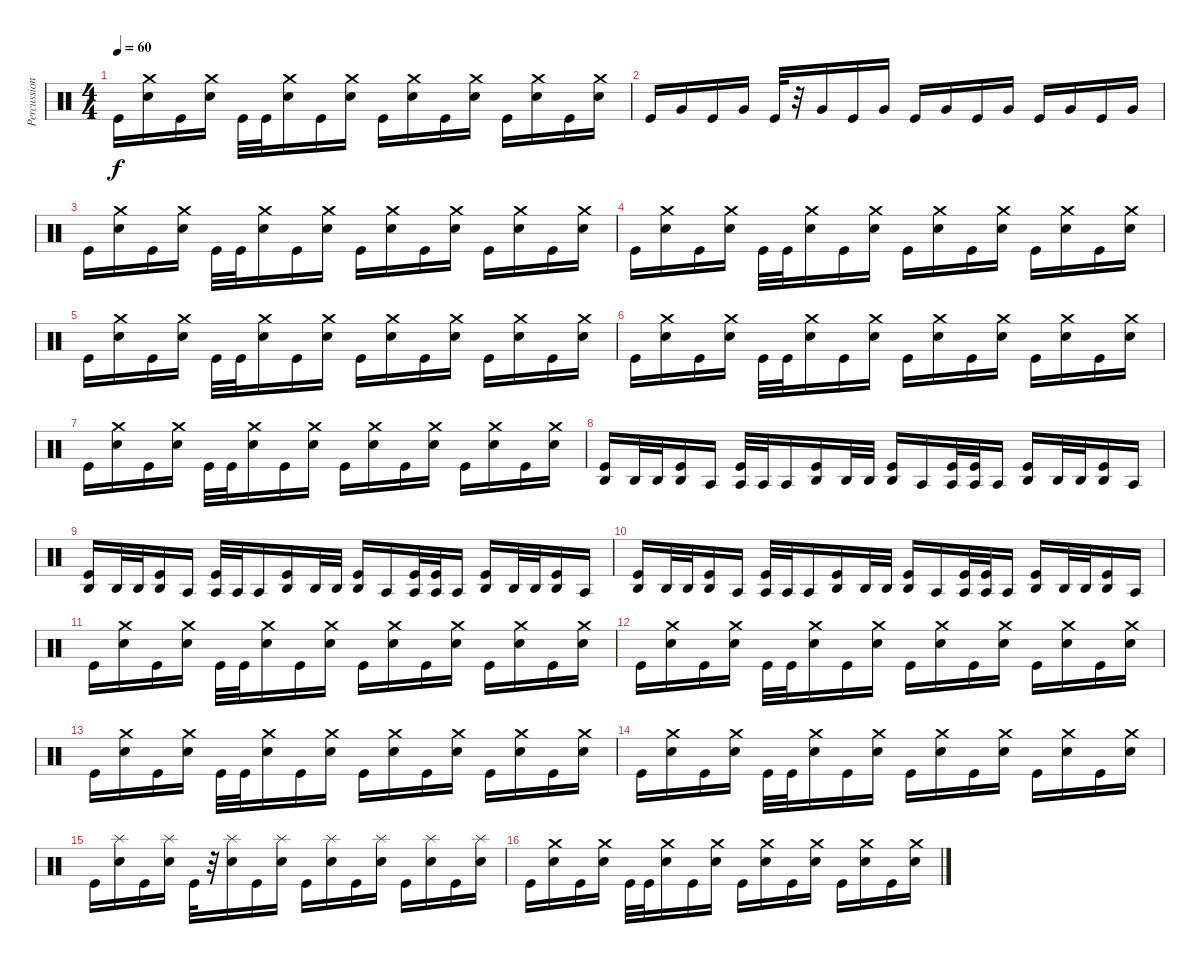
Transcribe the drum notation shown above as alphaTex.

\track ("Percussions" "Percussion") {instrument percussion}
\staff {score}
\articulation defaults
\ts (4 4)
\tempo 60
\clef neutral
\ks c "Kick (hit)".16{dy f}
("Crash medium (hit)" "Electric Snare (hit)").16 "Kick (hit)".16 ("Crash medium (hit)" "Electric Snare (hit)").16 "Kick (hit)".32 "Kick (hit)".32 ("Crash medium (hit)" "Electric Snare (hit)").16 "Kick (hit)".16 ("Crash medium (hit)" "Electric Snare (hit)").16 "Kick (hit)".16 ("Crash medium (hit)" "Electric Snare (hit)").16 "Kick (hit)".16 ("Crash medium (hit)" "Electric Snare (hit)").16 "Kick (hit)".16 ("Crash medium (hit)" "Electric Snare (hit)").16 "Kick (hit)".16 ("Crash medium (hit)" "Electric Snare (hit)").16 |
"Kick (hit)".16 "Very Low Tom (hit)".16 "Kick (hit)".16 "Very Low Tom (hit)".16 "Kick (hit)".32 r.32 "Very Low Tom (hit)".16 "Kick (hit)".16 "Very Low Tom (hit)".16 "Kick (hit)".16 "Very Low Tom (hit)".16 "Kick (hit)".16 "Very Low Tom (hit)".16 "Kick (hit)".16 "Very Low Tom (hit)".16 "Kick (hit)".16 "Very Low Tom (hit)".16 |
"Kick (hit)".16 ("Crash medium (hit)" "Electric Snare (hit)").16 "Kick (hit)".16 ("Crash medium (hit)" "Electric Snare (hit)").16 "Kick (hit)".32 "Kick (hit)".32 ("Crash medium (hit)" "Electric Snare (hit)").16 "Kick (hit)".16 ("Crash medium (hit)" "Electric Snare (hit)").16 "Kick (hit)".16 ("Crash medium (hit)" "Electric Snare (hit)").16 "Kick (hit)".16 ("Crash medium (hit)" "Electric Snare (hit)").16 "Kick (hit)".16 ("Crash medium (hit)" "Electric Snare (hit)").16 "Kick (hit)".16 ("Crash medium (hit)" "Electric Snare (hit)").16 |
"Kick (hit)".16 ("Crash medium (hit)" "Electric Snare (hit)").16 "Kick (hit)".16 ("Crash medium (hit)" "Electric Snare (hit)").16 "Kick (hit)".32 "Kick (hit)".32 ("Crash medium (hit)" "Electric Snare (hit)").16 "Kick (hit)".16 ("Crash medium (hit)" "Electric Snare (hit)").16 "Kick (hit)".16 ("Crash medium (hit)" "Electric Snare (hit)").16 "Kick (hit)".16 ("Crash medium (hit)" "Electric Snare (hit)").16 "Kick (hit)".16 ("Crash medium (hit)" "Electric Snare (hit)").16 "Kick (hit)".16 ("Crash medium (hit)" "Electric Snare (hit)").16 |
"Kick (hit)".16 ("Crash medium (hit)" "Electric Snare (hit)").16 "Kick (hit)".16 ("Crash medium (hit)" "Electric Snare (hit)").16 "Kick (hit)".32 "Kick (hit)".32 ("Crash medium (hit)" "Electric Snare (hit)").16 "Kick (hit)".16 ("Crash medium (hit)" "Electric Snare (hit)").16 "Kick (hit)".16 ("Crash medium (hit)" "Electric Snare (hit)").16 "Kick (hit)".16 ("Crash medium (hit)" "Electric Snare (hit)").16 "Kick (hit)".16 ("Crash medium (hit)" "Electric Snare (hit)").16 "Kick (hit)".16 ("Crash medium (hit)" "Electric Snare (hit)").16 |
"Kick (hit)".16 ("Crash medium (hit)" "Electric Snare (hit)").16 "Kick (hit)".16 ("Crash medium (hit)" "Electric Snare (hit)").16 "Kick (hit)".32 "Kick (hit)".32 ("Crash medium (hit)" "Electric Snare (hit)").16 "Kick (hit)".16 ("Crash medium (hit)" "Electric Snare (hit)").16 "Kick (hit)".16 ("Crash medium (hit)" "Electric Snare (hit)").16 "Kick (hit)".16 ("Crash medium (hit)" "Electric Snare (hit)").16 "Kick (hit)".16 ("Crash medium (hit)" "Electric Snare (hit)").16 "Kick (hit)".16 ("Crash medium (hit)" "Electric Snare (hit)").16 |
"Kick (hit)".16 ("Crash medium (hit)" "Electric Snare (hit)").16 "Kick (hit)".16 ("Crash medium (hit)" "Electric Snare (hit)").16 "Kick (hit)".32 "Kick (hit)".32 ("Crash medium (hit)" "Electric Snare (hit)").16 "Kick (hit)".16 ("Crash medium (hit)" "Electric Snare (hit)").16 "Kick (hit)".16 ("Crash medium (hit)" "Electric Snare (hit)").16 "Kick (hit)".16 ("Crash medium (hit)" "Electric Snare (hit)").16 "Kick (hit)".16 ("Crash medium (hit)" "Electric Snare (hit)").16 "Kick (hit)".16 ("Crash medium (hit)" "Electric Snare (hit)").16 |
("Agogo high (hit)" "Kick (hit)").16 "Agogo high (hit)".32 "Agogo high (hit)".32 ("Agogo high (hit)" "Kick (hit)").16 "Agogo tow (hit)".16 ("Agogo tow (hit)" "Kick (hit)").32 "Agogo tow (hit)".32 "Agogo tow (hit)".16 ("Agogo high (hit)" "Kick (hit)").16 "Agogo high (hit)".32 "Agogo high (hit)".32 ("Agogo high (hit)" "Kick (hit)").16 "Agogo tow (hit)".16 ("Agogo tow (hit)" "Kick (hit)").32 ("Agogo tow (hit)" "Kick (hit)").32 "Agogo tow (hit)".16 ("Agogo high (hit)" "Kick (hit)").16 "Agogo high (hit)".32 "Agogo high (hit)".32 ("Agogo high (hit)" "Kick (hit)").16 "Agogo tow (hit)".16 |
("Agogo high (hit)" "Kick (hit)").16 "Agogo high (hit)".32 "Agogo high (hit)".32 ("Agogo high (hit)" "Kick (hit)").16 "Agogo tow (hit)".16 ("Agogo tow (hit)" "Kick (hit)").32 "Agogo tow (hit)".32 "Agogo tow (hit)".16 ("Agogo high (hit)" "Kick (hit)").16 "Agogo high (hit)".32 "Agogo high (hit)".32 ("Agogo high (hit)" "Kick (hit)").16 "Agogo tow (hit)".16 ("Agogo tow (hit)" "Kick (hit)").32 ("Agogo tow (hit)" "Kick (hit)").32 "Agogo tow (hit)".16 ("Agogo high (hit)" "Kick (hit)").16 "Agogo high (hit)".32 "Agogo high (hit)".32 ("Agogo high (hit)" "Kick (hit)").16 "Agogo tow (hit)".16 |
("Agogo high (hit)" "Kick (hit)").16 "Agogo high (hit)".32 "Agogo high (hit)".32 ("Agogo high (hit)" "Kick (hit)").16 "Agogo tow (hit)".16 ("Agogo tow (hit)" "Kick (hit)").32 "Agogo tow (hit)".32 "Agogo tow (hit)".16 ("Agogo high (hit)" "Kick (hit)").16 "Agogo high (hit)".32 "Agogo high (hit)".32 ("Agogo high (hit)" "Kick (hit)").16 "Agogo tow (hit)".16 ("Agogo tow (hit)" "Kick (hit)").32 ("Agogo tow (hit)" "Kick (hit)").32 "Agogo tow (hit)".16 ("Agogo high (hit)" "Kick (hit)").16 "Agogo high (hit)".32 "Agogo high (hit)".32 ("Agogo high (hit)" "Kick (hit)").16 "Agogo tow (hit)".16 |
"Kick (hit)".16 ("Crash medium (hit)" "Electric Snare (hit)").16 "Kick (hit)".16 ("Crash medium (hit)" "Electric Snare (hit)").16 "Kick (hit)".32 "Kick (hit)".32 ("Crash medium (hit)" "Electric Snare (hit)").16 "Kick (hit)".16 ("Crash medium (hit)" "Electric Snare (hit)").16 "Kick (hit)".16 ("Crash medium (hit)" "Electric Snare (hit)").16 "Kick (hit)".16 ("Crash medium (hit)" "Electric Snare (hit)").16 "Kick (hit)".16 ("Crash medium (hit)" "Electric Snare (hit)").16 "Kick (hit)".16 ("Crash medium (hit)" "Electric Snare (hit)").16 |
"Kick (hit)".16 ("Crash medium (hit)" "Electric Snare (hit)").16 "Kick (hit)".16 ("Crash medium (hit)" "Electric Snare (hit)").16 "Kick (hit)".32 "Kick (hit)".32 ("Crash medium (hit)" "Electric Snare (hit)").16 "Kick (hit)".16 ("Crash medium (hit)" "Electric Snare (hit)").16 "Kick (hit)".16 ("Crash medium (hit)" "Electric Snare (hit)").16 "Kick (hit)".16 ("Crash medium (hit)" "Electric Snare (hit)").16 "Kick (hit)".16 ("Crash medium (hit)" "Electric Snare (hit)").16 "Kick (hit)".16 ("Crash medium (hit)" "Electric Snare (hit)").16 |
"Kick (hit)".16 ("Crash medium (hit)" "Electric Snare (hit)").16 "Kick (hit)".16 ("Crash medium (hit)" "Electric Snare (hit)").16 "Kick (hit)".32 "Kick (hit)".32 ("Crash medium (hit)" "Electric Snare (hit)").16 "Kick (hit)".16 ("Crash medium (hit)" "Electric Snare (hit)").16 "Kick (hit)".16 ("Crash medium (hit)" "Electric Snare (hit)").16 "Kick (hit)".16 ("Crash medium (hit)" "Electric Snare (hit)").16 "Kick (hit)".16 ("Crash medium (hit)" "Electric Snare (hit)").16 "Kick (hit)".16 ("Crash medium (hit)" "Electric Snare (hit)").16 |
"Kick (hit)".16 ("Crash medium (hit)" "Electric Snare (hit)").16 "Kick (hit)".16 ("Crash medium (hit)" "Electric Snare (hit)").16 "Kick (hit)".32 "Kick (hit)".32 ("Crash medium (hit)" "Electric Snare (hit)").16 "Kick (hit)".16 ("Crash medium (hit)" "Electric Snare (hit)").16 "Kick (hit)".16 ("Crash medium (hit)" "Electric Snare (hit)").16 "Kick (hit)".16 ("Crash medium (hit)" "Electric Snare (hit)").16 "Kick (hit)".16 ("Crash medium (hit)" "Electric Snare (hit)").16 "Kick (hit)".16 ("Crash medium (hit)" "Electric Snare (hit)").16 |
"Kick (hit)".16 ("Splash (hit)" "Electric Snare (hit)").16 "Kick (hit)".16 ("Splash (hit)" "Electric Snare (hit)").16 "Kick (hit)".32 r.32 ("Splash (hit)" "Electric Snare (hit)").16 "Kick (hit)".16 ("Splash (hit)" "Electric Snare (hit)").16 "Kick (hit)".16 ("Splash (hit)" "Electric Snare (hit)").16 "Kick (hit)".16 ("Splash (hit)" "Electric Snare (hit)").16 "Kick (hit)".16 ("Splash (hit)" "Electric Snare (hit)").16 "Kick (hit)".16 ("Splash (hit)" "Electric Snare (hit)").16 |
"Kick (hit)".16 ("Crash medium (hit)" "Electric Snare (hit)").16 "Kick (hit)".16 ("Crash medium (hit)" "Electric Snare (hit)").16 "Kick (hit)".32 "Kick (hit)".32 ("Crash medium (hit)" "Electric Snare (hit)").16 "Kick (hit)".16 ("Crash medium (hit)" "Electric Snare (hit)").16 "Kick (hit)".16 ("Crash medium (hit)" "Electric Snare (hit)").16 "Kick (hit)".16 ("Crash medium (hit)" "Electric Snare (hit)").16 "Kick (hit)".16 ("Crash medium (hit)" "Electric Snare (hit)").16 "Kick (hit)".16 ("Crash medium (hit)" "Electric Snare (hit)").16
